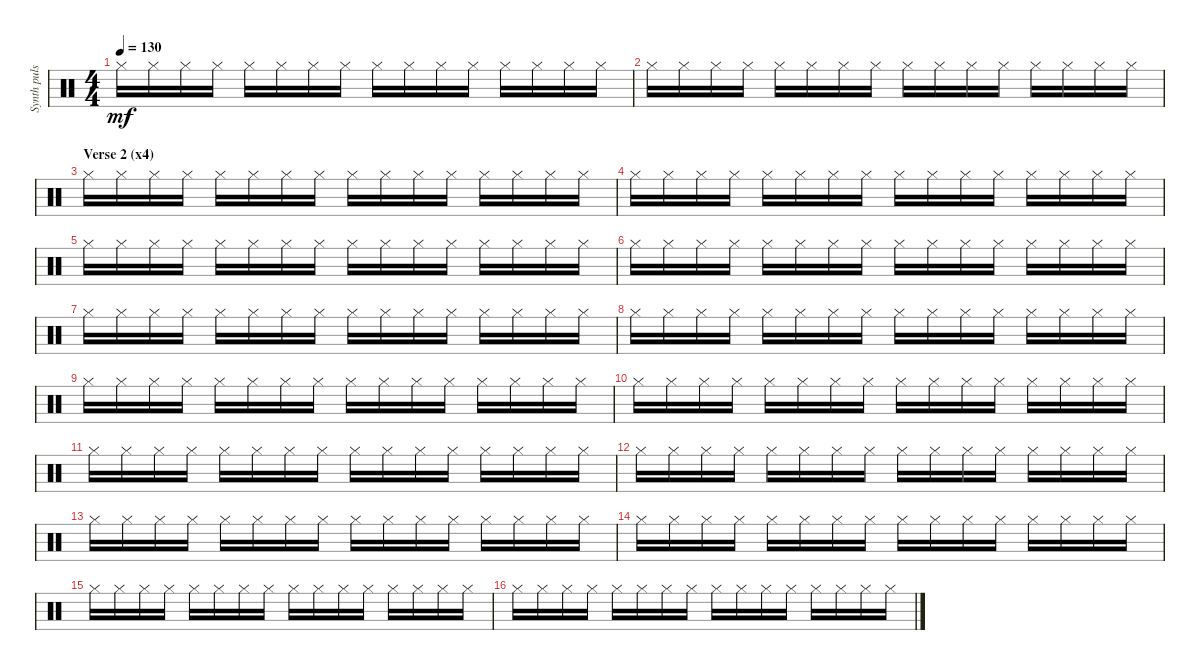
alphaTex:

\track ("Synth pulse perc" "Synth puls") {instrument percussion}
\staff {score}
\articulation defaults
\ts (4 4)
\tempo 130
\clef neutral
\ks c "Hi-Hat (closed)".16{dy mf} "Hi-Hat (closed)".16 "Hi-Hat (closed)".16 "Hi-Hat (closed)".16 "Hi-Hat (closed)".16 "Hi-Hat (closed)".16 "Hi-Hat (closed)".16 "Hi-Hat (closed)".16 "Hi-Hat (closed)".16 "Hi-Hat (closed)".16 "Hi-Hat (closed)".16 "Hi-Hat (closed)".16 "Hi-Hat (closed)".16 "Hi-Hat (closed)".16 "Hi-Hat (closed)".16 "Hi-Hat (closed)".16
|
"Hi-Hat (closed)".16 "Hi-Hat (closed)".16 "Hi-Hat (closed)".16 "Hi-Hat (closed)".16 "Hi-Hat (closed)".16 "Hi-Hat (closed)".16 "Hi-Hat (closed)".16 "Hi-Hat (closed)".16 "Hi-Hat (closed)".16 "Hi-Hat (closed)".16 "Hi-Hat (closed)".16 "Hi-Hat (closed)".16 "Hi-Hat (closed)".16 "Hi-Hat (closed)".16 "Hi-Hat (closed)".16 "Hi-Hat (closed)".16 |
\section ("" "Verse 2 (x4)")
"Hi-Hat (closed)".16 "Hi-Hat (closed)".16 "Hi-Hat (closed)".16 "Hi-Hat (closed)".16 "Hi-Hat (closed)".16 "Hi-Hat (closed)".16 "Hi-Hat (closed)".16 "Hi-Hat (closed)".16 "Hi-Hat (closed)".16 "Hi-Hat (closed)".16 "Hi-Hat (closed)".16 "Hi-Hat (closed)".16 "Hi-Hat (closed)".16 "Hi-Hat (closed)".16 "Hi-Hat (closed)".16 "Hi-Hat (closed)".16 |
"Hi-Hat (closed)".16 "Hi-Hat (closed)".16 "Hi-Hat (closed)".16 "Hi-Hat (closed)".16 "Hi-Hat (closed)".16 "Hi-Hat (closed)".16 "Hi-Hat (closed)".16 "Hi-Hat (closed)".16 "Hi-Hat (closed)".16 "Hi-Hat (closed)".16 "Hi-Hat (closed)".16 "Hi-Hat (closed)".16 "Hi-Hat (closed)".16 "Hi-Hat (closed)".16 "Hi-Hat (closed)".16 "Hi-Hat (closed)".16 |
"Hi-Hat (closed)".16 "Hi-Hat (closed)".16 "Hi-Hat (closed)".16 "Hi-Hat (closed)".16 "Hi-Hat (closed)".16 "Hi-Hat (closed)".16 "Hi-Hat (closed)".16 "Hi-Hat (closed)".16 "Hi-Hat (closed)".16 "Hi-Hat (closed)".16 "Hi-Hat (closed)".16 "Hi-Hat (closed)".16 "Hi-Hat (closed)".16 "Hi-Hat (closed)".16 "Hi-Hat (closed)".16 "Hi-Hat (closed)".16 |
"Hi-Hat (closed)".16 "Hi-Hat (closed)".16 "Hi-Hat (closed)".16 "Hi-Hat (closed)".16 "Hi-Hat (closed)".16 "Hi-Hat (closed)".16 "Hi-Hat (closed)".16 "Hi-Hat (closed)".16 "Hi-Hat (closed)".16 "Hi-Hat (closed)".16 "Hi-Hat (closed)".16 "Hi-Hat (closed)".16 "Hi-Hat (closed)".16 "Hi-Hat (closed)".16 "Hi-Hat (closed)".16 "Hi-Hat (closed)".16 |
"Hi-Hat (closed)".16 "Hi-Hat (closed)".16 "Hi-Hat (closed)".16 "Hi-Hat (closed)".16 "Hi-Hat (closed)".16 "Hi-Hat (closed)".16 "Hi-Hat (closed)".16 "Hi-Hat (closed)".16 "Hi-Hat (closed)".16 "Hi-Hat (closed)".16 "Hi-Hat (closed)".16 "Hi-Hat (closed)".16 "Hi-Hat (closed)".16 "Hi-Hat (closed)".16 "Hi-Hat (closed)".16 "Hi-Hat (closed)".16 |
"Hi-Hat (closed)".16 "Hi-Hat (closed)".16 "Hi-Hat (closed)".16 "Hi-Hat (closed)".16 "Hi-Hat (closed)".16 "Hi-Hat (closed)".16 "Hi-Hat (closed)".16 "Hi-Hat (closed)".16 "Hi-Hat (closed)".16 "Hi-Hat (closed)".16 "Hi-Hat (closed)".16 "Hi-Hat (closed)".16 "Hi-Hat (closed)".16 "Hi-Hat (closed)".16 "Hi-Hat (closed)".16 "Hi-Hat (closed)".16 |
"Hi-Hat (closed)".16 "Hi-Hat (closed)".16 "Hi-Hat (closed)".16 "Hi-Hat (closed)".16 "Hi-Hat (closed)".16 "Hi-Hat (closed)".16 "Hi-Hat (closed)".16 "Hi-Hat (closed)".16 "Hi-Hat (closed)".16 "Hi-Hat (closed)".16 "Hi-Hat (closed)".16 "Hi-Hat (closed)".16 "Hi-Hat (closed)".16 "Hi-Hat (closed)".16 "Hi-Hat (closed)".16 "Hi-Hat (closed)".16 |
"Hi-Hat (closed)".16 "Hi-Hat (closed)".16 "Hi-Hat (closed)".16 "Hi-Hat (closed)".16 "Hi-Hat (closed)".16 "Hi-Hat (closed)".16 "Hi-Hat (closed)".16 "Hi-Hat (closed)".16 "Hi-Hat (closed)".16 "Hi-Hat (closed)".16 "Hi-Hat (closed)".16 "Hi-Hat (closed)".16 "Hi-Hat (closed)".16 "Hi-Hat (closed)".16 "Hi-Hat (closed)".16 "Hi-Hat (closed)".16 |
"Hi-Hat (closed)".16 "Hi-Hat (closed)".16 "Hi-Hat (closed)".16 "Hi-Hat (closed)".16 "Hi-Hat (closed)".16 "Hi-Hat (closed)".16 "Hi-Hat (closed)".16 "Hi-Hat (closed)".16 "Hi-Hat (closed)".16 "Hi-Hat (closed)".16 "Hi-Hat (closed)".16 "Hi-Hat (closed)".16 "Hi-Hat (closed)".16 "Hi-Hat (closed)".16 "Hi-Hat (closed)".16 "Hi-Hat (closed)".16 |
"Hi-Hat (closed)".16 "Hi-Hat (closed)".16 "Hi-Hat (closed)".16 "Hi-Hat (closed)".16 "Hi-Hat (closed)".16 "Hi-Hat (closed)".16 "Hi-Hat (closed)".16 "Hi-Hat (closed)".16 "Hi-Hat (closed)".16 "Hi-Hat (closed)".16 "Hi-Hat (closed)".16 "Hi-Hat (closed)".16 "Hi-Hat (closed)".16 "Hi-Hat (closed)".16 "Hi-Hat (closed)".16 "Hi-Hat (closed)".16 |
"Hi-Hat (closed)".16 "Hi-Hat (closed)".16 "Hi-Hat (closed)".16 "Hi-Hat (closed)".16 "Hi-Hat (closed)".16 "Hi-Hat (closed)".16 "Hi-Hat (closed)".16 "Hi-Hat (closed)".16 "Hi-Hat (closed)".16 "Hi-Hat (closed)".16 "Hi-Hat (closed)".16 "Hi-Hat (closed)".16 "Hi-Hat (closed)".16 "Hi-Hat (closed)".16 "Hi-Hat (closed)".16 "Hi-Hat (closed)".16 |
"Hi-Hat (closed)".16 "Hi-Hat (closed)".16 "Hi-Hat (closed)".16 "Hi-Hat (closed)".16 "Hi-Hat (closed)".16 "Hi-Hat (closed)".16 "Hi-Hat (closed)".16 "Hi-Hat (closed)".16 "Hi-Hat (closed)".16 "Hi-Hat (closed)".16 "Hi-Hat (closed)".16 "Hi-Hat (closed)".16 "Hi-Hat (closed)".16 "Hi-Hat (closed)".16 "Hi-Hat (closed)".16 "Hi-Hat (closed)".16 |
"Hi-Hat (closed)".16 "Hi-Hat (closed)".16 "Hi-Hat (closed)".16 "Hi-Hat (closed)".16 "Hi-Hat (closed)".16 "Hi-Hat (closed)".16 "Hi-Hat (closed)".16 "Hi-Hat (closed)".16 "Hi-Hat (closed)".16 "Hi-Hat (closed)".16 "Hi-Hat (closed)".16 "Hi-Hat (closed)".16 "Hi-Hat (closed)".16 "Hi-Hat (closed)".16 "Hi-Hat (closed)".16 "Hi-Hat (closed)".16 |
"Hi-Hat (closed)".16 "Hi-Hat (closed)".16 "Hi-Hat (closed)".16 "Hi-Hat (closed)".16 "Hi-Hat (closed)".16 "Hi-Hat (closed)".16 "Hi-Hat (closed)".16 "Hi-Hat (closed)".16 "Hi-Hat (closed)".16 "Hi-Hat (closed)".16 "Hi-Hat (closed)".16 "Hi-Hat (closed)".16 "Hi-Hat (closed)".16 "Hi-Hat (closed)".16 "Hi-Hat (closed)".16 "Hi-Hat (closed)".16
